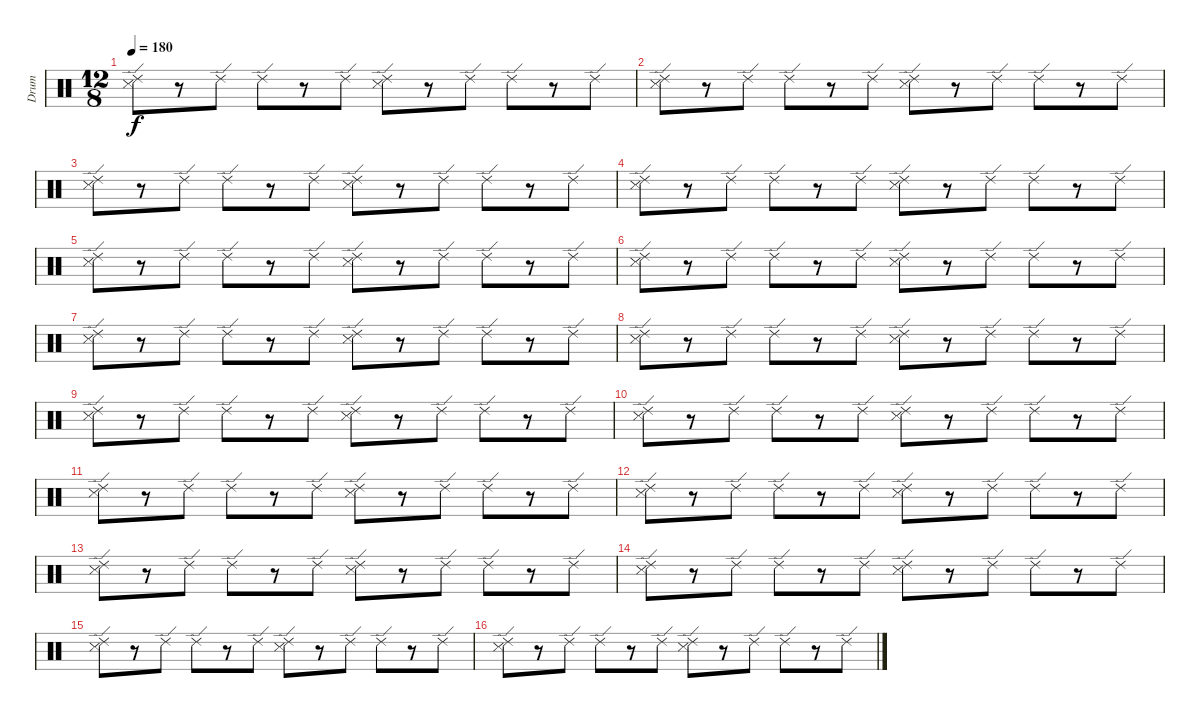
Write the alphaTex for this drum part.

\track ("Drum" "Drum") {instrument percussion}
\staff {score}
\articulation defaults
\ts (12 8)
\tempo 180
\clef neutral
\ks c
("Ride (edge) 2" "Snare (side stick) 3").8{dy f} r.8 "Ride (edge) 2".8 "Ride (edge) 2".8 r.8 "Ride (edge) 2".8 ("Ride (edge) 2" "Snare (side stick) 3").8 r.8 "Ride (edge) 2".8 "Ride (edge) 2".8 r.8 "Ride (edge) 2".8 |
("Ride (edge) 2" "Snare (side stick) 3").8 r.8 "Ride (edge) 2".8 "Ride (edge) 2".8 r.8 "Ride (edge) 2".8 ("Ride (edge) 2" "Snare (side stick) 3").8 r.8 "Ride (edge) 2".8 "Ride (edge) 2".8 r.8 "Ride (edge) 2".8 |
("Ride (edge) 2" "Snare (side stick) 3").8 r.8 "Ride (edge) 2".8 "Ride (edge) 2".8 r.8 "Ride (edge) 2".8 ("Ride (edge) 2" "Snare (side stick) 3").8 r.8 "Ride (edge) 2".8 "Ride (edge) 2".8 r.8 "Ride (edge) 2".8 |
("Ride (edge) 2" "Snare (side stick) 3").8 r.8 "Ride (edge) 2".8 "Ride (edge) 2".8 r.8 "Ride (edge) 2".8 ("Ride (edge) 2" "Snare (side stick) 3").8 r.8 "Ride (edge) 2".8 "Ride (edge) 2".8 r.8 "Ride (edge) 2".8 |
("Ride (edge) 2" "Snare (side stick) 3").8 r.8 "Ride (edge) 2".8 "Ride (edge) 2".8 r.8 "Ride (edge) 2".8 ("Ride (edge) 2" "Snare (side stick) 3").8 r.8 "Ride (edge) 2".8 "Ride (edge) 2".8 r.8 "Ride (edge) 2".8 |
("Ride (edge) 2" "Snare (side stick) 3").8 r.8 "Ride (edge) 2".8 "Ride (edge) 2".8 r.8 "Ride (edge) 2".8 ("Ride (edge) 2" "Snare (side stick) 3").8 r.8 "Ride (edge) 2".8 "Ride (edge) 2".8 r.8 "Ride (edge) 2".8 |
("Ride (edge) 2" "Snare (side stick) 3").8 r.8 "Ride (edge) 2".8 "Ride (edge) 2".8 r.8 "Ride (edge) 2".8 ("Ride (edge) 2" "Snare (side stick) 3").8 r.8 "Ride (edge) 2".8 "Ride (edge) 2".8 r.8 "Ride (edge) 2".8 |
("Ride (edge) 2" "Snare (side stick) 3").8 r.8 "Ride (edge) 2".8 "Ride (edge) 2".8 r.8 "Ride (edge) 2".8 ("Ride (edge) 2" "Snare (side stick) 3").8 r.8 "Ride (edge) 2".8 "Ride (edge) 2".8 r.8 "Ride (edge) 2".8 |
("Ride (edge) 2" "Snare (side stick) 3").8 r.8 "Ride (edge) 2".8 "Ride (edge) 2".8 r.8 "Ride (edge) 2".8 ("Ride (edge) 2" "Snare (side stick) 3").8 r.8 "Ride (edge) 2".8 "Ride (edge) 2".8 r.8 "Ride (edge) 2".8 |
("Ride (edge) 2" "Snare (side stick) 3").8 r.8 "Ride (edge) 2".8 "Ride (edge) 2".8 r.8 "Ride (edge) 2".8 ("Ride (edge) 2" "Snare (side stick) 3").8 r.8 "Ride (edge) 2".8 "Ride (edge) 2".8 r.8 "Ride (edge) 2".8 |
("Ride (edge) 2" "Snare (side stick) 3").8 r.8 "Ride (edge) 2".8 "Ride (edge) 2".8 r.8 "Ride (edge) 2".8 ("Ride (edge) 2" "Snare (side stick) 3").8 r.8 "Ride (edge) 2".8 "Ride (edge) 2".8 r.8 "Ride (edge) 2".8 |
("Ride (edge) 2" "Snare (side stick) 3").8 r.8 "Ride (edge) 2".8 "Ride (edge) 2".8 r.8 "Ride (edge) 2".8 ("Ride (edge) 2" "Snare (side stick) 3").8 r.8 "Ride (edge) 2".8 "Ride (edge) 2".8 r.8 "Ride (edge) 2".8 |
("Ride (edge) 2" "Snare (side stick) 3").8 r.8 "Ride (edge) 2".8 "Ride (edge) 2".8 r.8 "Ride (edge) 2".8 ("Ride (edge) 2" "Snare (side stick) 3").8 r.8 "Ride (edge) 2".8 "Ride (edge) 2".8 r.8 "Ride (edge) 2".8 |
("Ride (edge) 2" "Snare (side stick) 3").8 r.8 "Ride (edge) 2".8 "Ride (edge) 2".8 r.8 "Ride (edge) 2".8 ("Ride (edge) 2" "Snare (side stick) 3").8 r.8 "Ride (edge) 2".8 "Ride (edge) 2".8 r.8 "Ride (edge) 2".8 |
("Ride (edge) 2" "Snare (side stick) 3").8 r.8 "Ride (edge) 2".8 "Ride (edge) 2".8 r.8 "Ride (edge) 2".8 ("Ride (edge) 2" "Snare (side stick) 3").8 r.8 "Ride (edge) 2".8 "Ride (edge) 2".8 r.8 "Ride (edge) 2".8 |
("Ride (edge) 2" "Snare (side stick) 3").8 r.8 "Ride (edge) 2".8 "Ride (edge) 2".8 r.8 "Ride (edge) 2".8 ("Ride (edge) 2" "Snare (side stick) 3").8 r.8 "Ride (edge) 2".8 "Ride (edge) 2".8 r.8 "Ride (edge) 2".8
